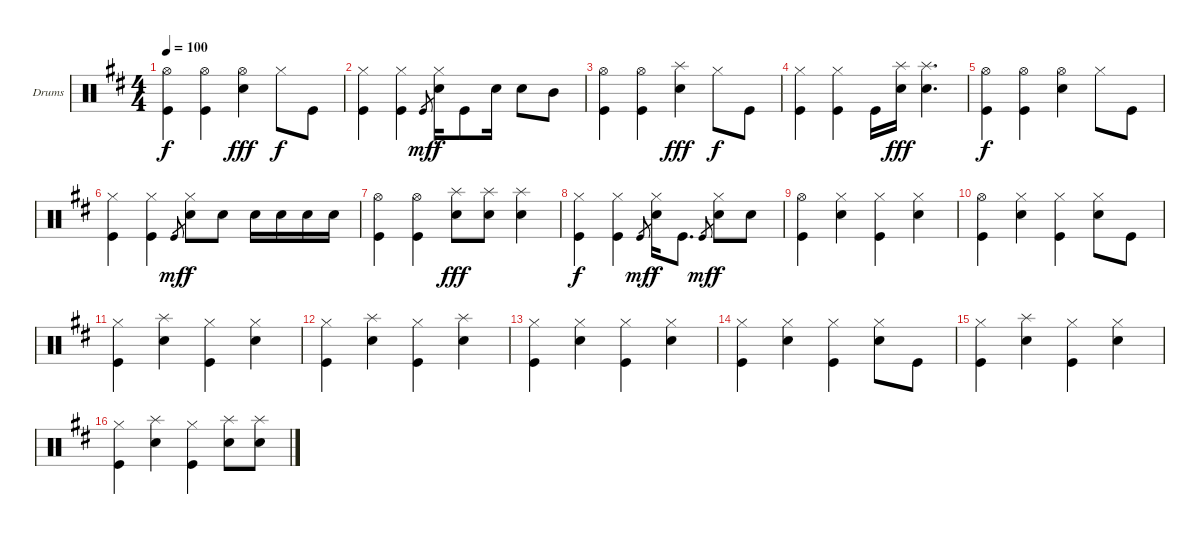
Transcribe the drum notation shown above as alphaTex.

\bracketExtendMode groupsimilarinstruments
\firstSystemTrackNameOrientation horizontal
\otherSystemsTrackNameOrientation horizontal
\track ("Drumkit" "Drums") {instrument percussion}
\staff {score}
\articulation defaults
\ts (4 4)
\tempo 100
\clef neutral
\scale
0.941992
\ks d
("Hi-Hat (open)" "Kick (hit)").4{dy f} ("Hi-Hat (open)" "Kick (hit)").4 ("Hi-Hat (open)" "Snare (hit) 2").4{dy fff} "Hi-Hat (closed)".8{dy f} "Kick (hit)".8 |
\scale
1.05801 ("Hi-Hat (closed)" "Kick (hit)").4 ("Hi-Hat (closed)" "Kick (hit)").4 "Kick (hit)".8{gr dy mf} ("Hi-Hat (closed)" "Snare (hit) 2").16{dy f} "Kick (hit)".8 "Snare (hit) 2".16 "Snare (hit) 2".8 "Mid Tom (hit)".8 |
\scale
0.941992 ("Hi-Hat (open)" "Kick (hit)").4 ("Hi-Hat (open)" "Kick (hit)").4 ("Splash (hit)" "Snare (hit) 2").4{dy fff} "Hi-Hat (closed)".8{dy f} "Kick (hit)".8 |
\scale
1.05801 ("Hi-Hat (closed)" "Kick (hit)").4 ("Hi-Hat (closed)" "Kick (hit)").4 "Kick (hit)".16 ("Splash (hit)" "Snare (hit) 2").16{dy fff} ("Splash (hit)" "Snare (hit) 2").4{d} |
\scale
0.941992 ("Hi-Hat (open)" "Kick (hit)").4{dy f} ("Hi-Hat (open)" "Kick (hit)").4 ("Hi-Hat (open)" "Snare (hit) 2").4 "Hi-Hat (closed)".8 "Kick (hit)".8 |
\scale
1.05801 ("Hi-Hat (closed)" "Kick (hit)").4 ("Hi-Hat (closed)" "Kick (hit)").4 "Kick (hit)".8{gr dy mf} ("Hi-Hat (closed)" "Snare (hit) 2").8{dy f} "Snare (hit) 2".8 "Snare (hit) 2".16 "Snare (hit) 2".16 "Snare (hit) 2".16 "Snare (hit) 2".16 |
\scale
0.941992 ("Hi-Hat (open)" "Kick (hit)").4 ("Hi-Hat (open)" "Kick (hit)").4 ("Splash (hit)" "Snare (hit) 2").8{dy fff} ("Splash (hit)" "Snare (hit) 2").8 ("Splash (hit)" "Snare (hit) 2").4 |
\scale
1.05801 ("Hi-Hat (closed)" "Kick (hit)").4{dy f} ("Hi-Hat (closed)" "Kick (hit)").4 "Kick (hit)".8{gr dy mf} ("Hi-Hat (closed)" "Snare (hit) 2").16{dy f} "Kick (hit)".8{d} "Kick (hit)".8{gr dy mf} ("Hi-Hat (closed)" "Snare (hit) 2").8{dy f} "Snare (hit) 2".8 |
\scale
0.941992 ("Hi-Hat (open)" "Kick (hit)").4 ("Hi-Hat (closed)" "Snare (hit) 2").4 ("Hi-Hat (closed)" "Kick (hit)").4 ("Hi-Hat (closed)" "Snare (hit) 2").4 |
\scale
1.05801 ("Hi-Hat (open)" "Kick (hit)").4 ("Hi-Hat (closed)" "Snare (hit) 2").4 ("Hi-Hat (closed)" "Kick (hit)").4 ("Hi-Hat (closed)" "Snare (hit) 2").8 "Kick (hit)".8 |
\scale
0.941992 ("Hi-Hat (closed)" "Kick (hit)").4 ("Splash (hit)" "Snare (hit) 2").4 ("Hi-Hat (closed)" "Kick (hit)").4 ("Hi-Hat (closed)" "Snare (hit) 2").4 |
\scale
1.05801 ("Hi-Hat (closed)" "Kick (hit)").4 ("Splash (hit)" "Snare (hit) 2").4 ("Hi-Hat (closed)" "Kick (hit)").4 ("Splash (hit)" "Snare (hit) 2").4 |
\scale
0.941992 ("Hi-Hat (closed)" "Kick (hit)").4 ("Hi-Hat (closed)" "Snare (hit) 2").4 ("Hi-Hat (closed)" "Kick (hit)").4 ("Hi-Hat (closed)" "Snare (hit) 2").4 |
\scale
1.05801 ("Hi-Hat (closed)" "Kick (hit)").4 ("Hi-Hat (closed)" "Snare (hit) 2").4 ("Hi-Hat (closed)" "Kick (hit)").4 ("Hi-Hat (closed)" "Snare (hit) 2").8 "Kick (hit)".8 |
\scale
0.941992 ("Hi-Hat (closed)" "Kick (hit)").4 ("Splash (hit)" "Snare (hit) 2").4 ("Hi-Hat (closed)" "Kick (hit)").4 ("Hi-Hat (closed)" "Snare (hit) 2").4 |
\scale
1.05801 ("Hi-Hat (closed)" "Kick (hit)").4 ("Splash (hit)" "Snare (hit) 2").4 ("Hi-Hat (closed)" "Kick (hit)").4 ("Splash (hit)" "Snare (hit) 2").8 ("Splash (hit)" "Snare (hit) 2").8
